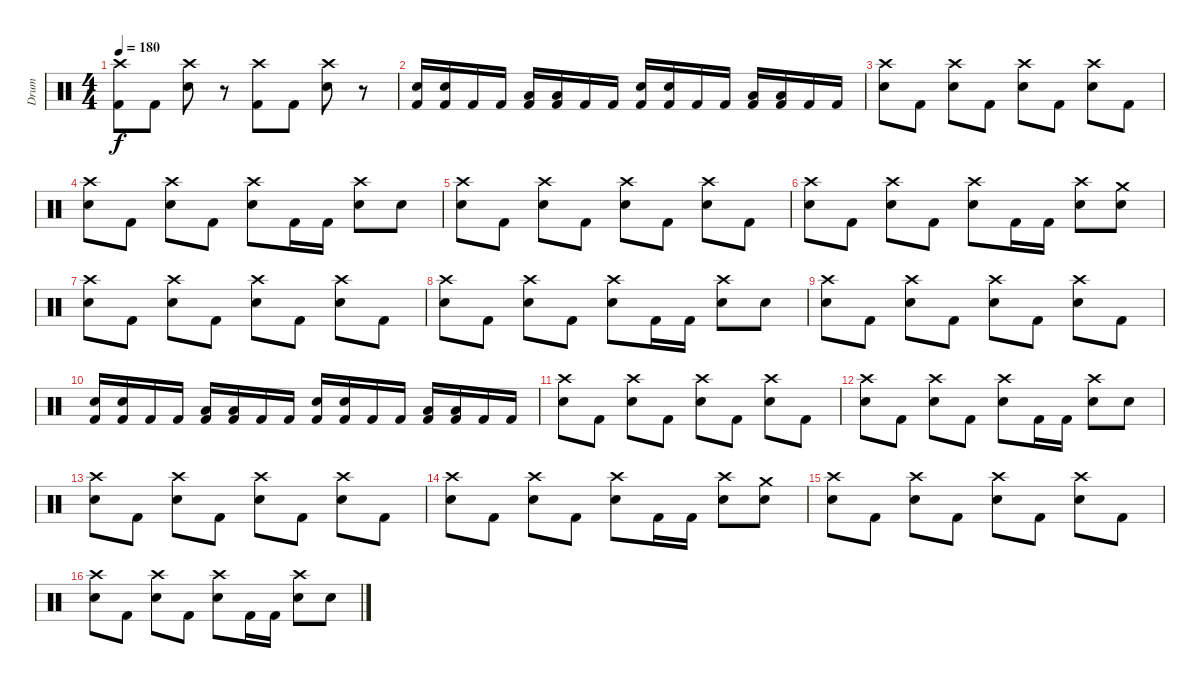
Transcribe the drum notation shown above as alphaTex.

\track ("Drum" "Drum") {instrument percussion}
\staff {score}
\articulation defaults
\ts (4 4)
\tempo 180
\clef neutral
\ks c
("Crash high (hit)" "Kick (hit) 2").8{dy f} "Kick (hit) 2".8 ("Crash high (hit)" "Snare (hit) 2").8 r.8 ("Crash high (hit)" "Kick (hit) 2").8 "Kick (hit) 2".8 ("Crash high (hit)" "Snare (hit) 2").8 r.8 |
("Snare (hit) 2" "Kick (hit) 2").16 ("Snare (hit) 2" "Kick (hit) 2").16 "Kick (hit) 2".16 "Kick (hit) 2".16 ("Low Tom (hit)" "Kick (hit) 2").16 ("Low Tom (hit)" "Kick (hit) 2").16 "Kick (hit) 2".16 "Kick (hit) 2".16 ("Snare (hit) 2" "Kick (hit) 2").16 ("Snare (hit) 2" "Kick (hit) 2").16 "Kick (hit) 2".16 "Kick (hit) 2".16 ("Low Tom (hit)" "Kick (hit) 2").16 ("Low Tom (hit)" "Kick (hit) 2").16 "Kick (hit) 2".16 "Kick (hit) 2".16 |
("Crash high (hit)" "Snare (hit) 2").8 "Kick (hit) 2".8 ("Crash high (hit)" "Snare (hit) 2").8 "Kick (hit) 2".8 ("Crash high (hit)" "Snare (hit) 2").8 "Kick (hit) 2".8 ("Crash high (hit)" "Snare (hit) 2").8 "Kick (hit) 2".8 |
("Crash high (hit)" "Snare (hit) 2").8 "Kick (hit) 2".8 ("Crash high (hit)" "Snare (hit) 2").8 "Kick (hit) 2".8 ("Crash high (hit)" "Snare (hit) 2").8 "Kick (hit) 2".16 "Kick (hit) 2".16 ("Crash high (hit)" "Snare (hit) 2").8 "Snare (hit) 2".8 |
("Crash high (hit)" "Snare (hit) 2").8 "Kick (hit) 2".8 ("Crash high (hit)" "Snare (hit) 2").8 "Kick (hit) 2".8 ("Crash high (hit)" "Snare (hit) 2").8 "Kick (hit) 2".8 ("Crash high (hit)" "Snare (hit) 2").8 "Kick (hit) 2".8 |
("Crash high (hit)" "Snare (hit) 2").8 "Kick (hit) 2".8 ("Crash high (hit)" "Snare (hit) 2").8 "Kick (hit) 2".8 ("Crash high (hit)" "Snare (hit) 2").8 "Kick (hit) 2".16 "Kick (hit) 2".16 ("Crash high (hit)" "Snare (hit) 2").8 ("Crash medium (hit)" "Snare (hit) 2").8 |
("Crash high (hit)" "Snare (hit) 2").8 "Kick (hit) 2".8 ("Crash high (hit)" "Snare (hit) 2").8 "Kick (hit) 2".8 ("Crash high (hit)" "Snare (hit) 2").8 "Kick (hit) 2".8 ("Crash high (hit)" "Snare (hit) 2").8 "Kick (hit) 2".8 |
("Crash high (hit)" "Snare (hit) 2").8 "Kick (hit) 2".8 ("Crash high (hit)" "Snare (hit) 2").8 "Kick (hit) 2".8 ("Crash high (hit)" "Snare (hit) 2").8 "Kick (hit) 2".16 "Kick (hit) 2".16 ("Crash high (hit)" "Snare (hit) 2").8 "Snare (hit) 2".8 |
("Crash high (hit)" "Snare (hit) 2").8 "Kick (hit) 2".8 ("Crash high (hit)" "Snare (hit) 2").8 "Kick (hit) 2".8 ("Crash high (hit)" "Snare (hit) 2").8 "Kick (hit) 2".8 ("Crash high (hit)" "Snare (hit) 2").8 "Kick (hit) 2".8 |
("Snare (hit) 2" "Kick (hit) 2").16 ("Snare (hit) 2" "Kick (hit) 2").16 "Kick (hit) 2".16 "Kick (hit) 2".16 ("Low Tom (hit)" "Kick (hit) 2").16 ("Low Tom (hit)" "Kick (hit) 2").16 "Kick (hit) 2".16 "Kick (hit) 2".16 ("Snare (hit) 2" "Kick (hit) 2").16 ("Snare (hit) 2" "Kick (hit) 2").16 "Kick (hit) 2".16 "Kick (hit) 2".16 ("Low Tom (hit)" "Kick (hit) 2").16 ("Low Tom (hit)" "Kick (hit) 2").16 "Kick (hit) 2".16 "Kick (hit) 2".16 |
("Crash high (hit)" "Snare (hit) 2").8 "Kick (hit) 2".8 ("Crash high (hit)" "Snare (hit) 2").8 "Kick (hit) 2".8 ("Crash high (hit)" "Snare (hit) 2").8 "Kick (hit) 2".8 ("Crash high (hit)" "Snare (hit) 2").8 "Kick (hit) 2".8 |
("Crash high (hit)" "Snare (hit) 2").8 "Kick (hit) 2".8 ("Crash high (hit)" "Snare (hit) 2").8 "Kick (hit) 2".8 ("Crash high (hit)" "Snare (hit) 2").8 "Kick (hit) 2".16 "Kick (hit) 2".16 ("Crash high (hit)" "Snare (hit) 2").8 "Snare (hit) 2".8 |
("Crash high (hit)" "Snare (hit) 2").8 "Kick (hit) 2".8 ("Crash high (hit)" "Snare (hit) 2").8 "Kick (hit) 2".8 ("Crash high (hit)" "Snare (hit) 2").8 "Kick (hit) 2".8 ("Crash high (hit)" "Snare (hit) 2").8 "Kick (hit) 2".8 |
("Crash high (hit)" "Snare (hit) 2").8 "Kick (hit) 2".8 ("Crash high (hit)" "Snare (hit) 2").8 "Kick (hit) 2".8 ("Crash high (hit)" "Snare (hit) 2").8 "Kick (hit) 2".16 "Kick (hit) 2".16 ("Crash high (hit)" "Snare (hit) 2").8 ("Crash medium (hit)" "Snare (hit) 2").8 |
("Crash high (hit)" "Snare (hit) 2").8 "Kick (hit) 2".8 ("Crash high (hit)" "Snare (hit) 2").8 "Kick (hit) 2".8 ("Crash high (hit)" "Snare (hit) 2").8 "Kick (hit) 2".8 ("Crash high (hit)" "Snare (hit) 2").8 "Kick (hit) 2".8 |
("Crash high (hit)" "Snare (hit) 2").8 "Kick (hit) 2".8 ("Crash high (hit)" "Snare (hit) 2").8 "Kick (hit) 2".8 ("Crash high (hit)" "Snare (hit) 2").8 "Kick (hit) 2".16 "Kick (hit) 2".16 ("Crash high (hit)" "Snare (hit) 2").8 "Snare (hit) 2".8
